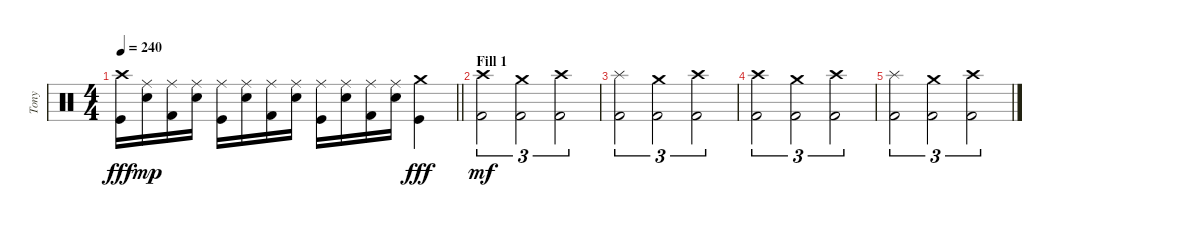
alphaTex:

\track ("Tony" "Tony") {instrument percussion}
\staff {score}
\articulation defaults
\ts (4 4)
\tempo 240
\clef neutral
\barLineRight lightlight
\ks c
("Kick (hit)" "Crash high (hit)").16{dy fff} ("Snare (hit) 2" "Ride (middle)").16{dy mp} ("Kick (hit) 2" "Ride (middle)").16 ("Snare (hit) 2" "Ride (middle)").16 ("Kick (hit)" "Ride (middle)").16 ("Snare (hit) 2" "Ride (middle)").16 ("Kick (hit) 2" "Ride (middle)").16 ("Snare (hit) 2" "Ride (middle)").16 ("Kick (hit)" "Ride (middle)").16 ("Snare (hit) 2" "Ride (middle)").16 ("Kick (hit) 2" "Ride (middle)").16 ("Snare (hit) 2" "Ride (middle)").16 ("Kick (hit)" "Crash medium (hit)").4{dy fff} |
\section ("" "Fill 1")
("Kick (hit) 2" "Crash high (hit)").2{tu (3 2) dy mf} ("Kick (hit) 2" "Crash medium (hit)").2{tu (3 2)} ("Kick (hit) 2" "Crash high (hit)").2{tu (3 2)} |
("Kick (hit) 2" "Splash (hit)").2{tu (3 2)} ("Kick (hit) 2" "Crash medium (hit)").2{tu (3 2)} ("Kick (hit) 2" "Crash high (hit)").2{tu (3 2)} |
("Kick (hit) 2" "Crash high (hit)").2{tu (3 2)} ("Kick (hit) 2" "Crash medium (hit)").2{tu (3 2)} ("Kick (hit) 2" "Crash high (hit)").2{tu (3 2)} |
("Kick (hit) 2" "Splash (hit)").2{tu (3 2)} ("Kick (hit) 2" "Crash medium (hit)").2{tu (3 2)} ("Kick (hit) 2" "Crash high (hit)").2{tu (3 2)}
